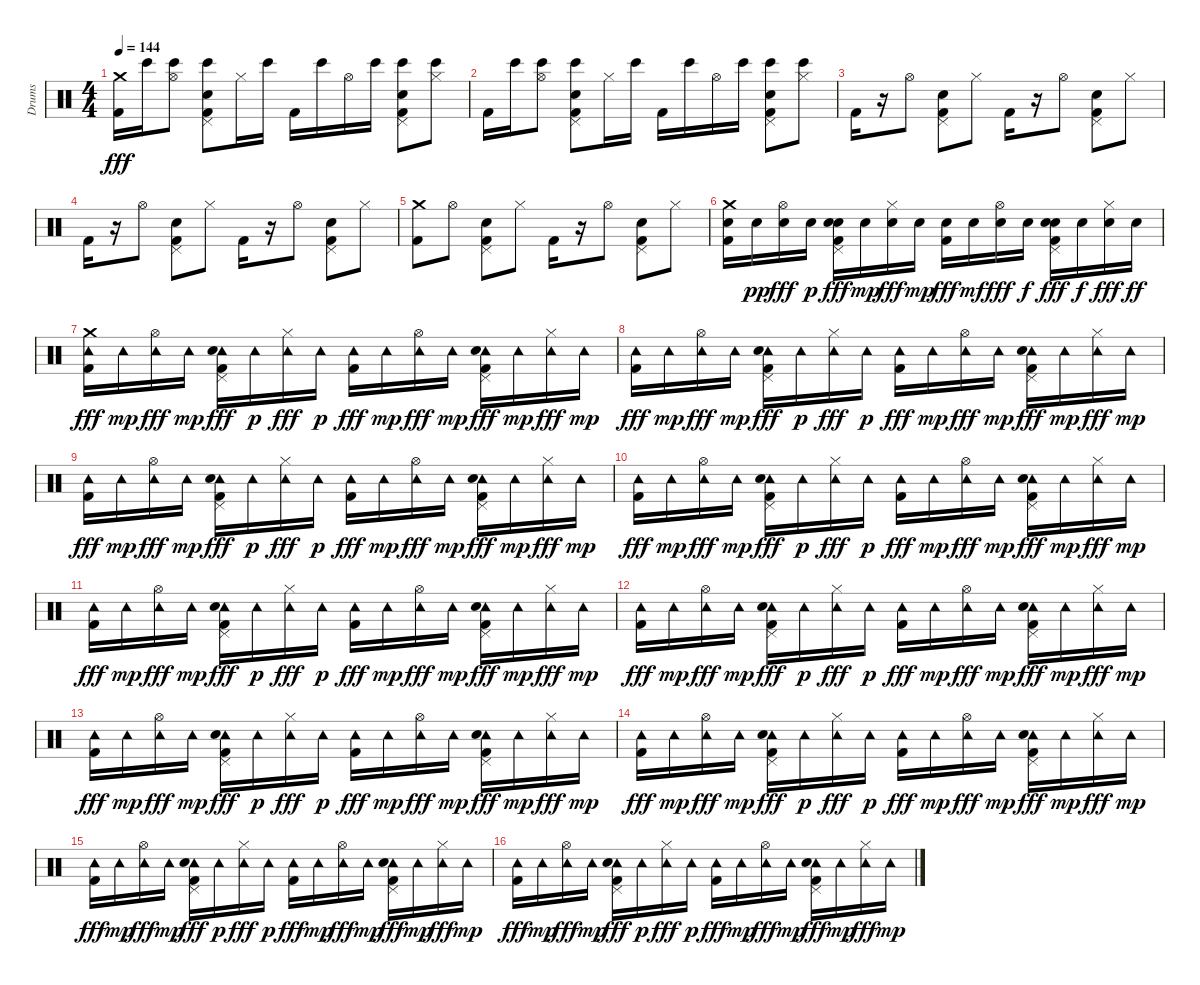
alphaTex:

\track ("Drums" "Drums") {instrument percussion}
\staff {score}
\articulation defaults
\ts (4 4)
\tempo 144
\clef neutral
\ks c
("Crash medium (hit)" "Kick (hit) 2").16{dy fff} "Bongo High (hit)".16 ("Bongo High (hit)" "Hi-Hat (open)").8 ("Bongo High (hit)" "Pedal Hi-Hat (hit)" "Kick (hit) 2" "Hand Clap (hit)").8 "Hi-Hat (closed)".16 "Bongo High (hit)".16 "Kick (hit) 2".16 "Bongo High (hit)".16 "Hi-Hat (open)".16 "Bongo High (hit)".16 ("Bongo High (hit)" "Pedal Hi-Hat (hit)" "Kick (hit) 2" "Hand Clap (hit)").8 ("Bongo High (hit)" "Hi-Hat (closed)").8 |
"Kick (hit) 2".16 "Bongo High (hit)".16 ("Bongo High (hit)" "Hi-Hat (open)").8 ("Bongo High (hit)" "Pedal Hi-Hat (hit)" "Kick (hit) 2" "Hand Clap (hit)").8 "Hi-Hat (closed)".16 "Bongo High (hit)".16 "Kick (hit) 2".16 "Bongo High (hit)".16 "Hi-Hat (open)".16 "Bongo High (hit)".16 ("Bongo High (hit)" "Pedal Hi-Hat (hit)" "Kick (hit) 2" "Hand Clap (hit)").8 ("Bongo High (hit)" "Hi-Hat (closed)").8 |
"Kick (hit) 2".16 r.16 "Hi-Hat (open)".8 ("Pedal Hi-Hat (hit)" "Kick (hit) 2" "Hand Clap (hit)").8 "Hi-Hat (closed)".8 "Kick (hit) 2".16 r.16 "Hi-Hat (open)".8 ("Pedal Hi-Hat (hit)" "Kick (hit) 2" "Hand Clap (hit)").8 "Hi-Hat (closed)".8 |
"Kick (hit) 2".16 r.16 "Hi-Hat (open)".8 ("Pedal Hi-Hat (hit)" "Kick (hit) 2" "Hand Clap (hit)").8 "Hi-Hat (closed)".8 "Kick (hit) 2".16 r.16 "Hi-Hat (open)".8 ("Pedal Hi-Hat (hit)" "Kick (hit) 2" "Hand Clap (hit)").8 "Hi-Hat (closed)".8 |
("Crash medium (hit)" "Kick (hit) 2").8 "Hi-Hat (open)".8 ("Pedal Hi-Hat (hit)" "Kick (hit) 2" "Hand Clap (hit)").8 "Hi-Hat (closed)".8 "Kick (hit) 2".16 r.16 "Hi-Hat (open)".8 ("Pedal Hi-Hat (hit)" "Kick (hit) 2" "Hand Clap (hit)").8 "Hi-Hat (closed)".8 |
("Electric Snare (hit)" "Crash medium (hit)" "Kick (hit) 2").16 "Electric Snare (hit)".16{dy pp} ("Electric Snare (hit)" "Hi-Hat (open)").16{dy fff} "Electric Snare (hit)".16{dy p} ("Electric Snare (hit)" "Pedal Hi-Hat (hit)" "Kick (hit) 2" "Hand Clap (hit)").16{dy fff} "Electric Snare (hit)".16{dy mp} ("Electric Snare (hit)" "Hi-Hat (closed)").16{dy fff} "Electric Snare (hit)".16{dy mp} ("Electric Snare (hit)" "Kick (hit) 2").16{dy fff} "Electric Snare (hit)".16{dy mf} ("Electric Snare (hit)" "Hi-Hat (open)").16{dy fff} "Electric Snare (hit)".16{dy f} ("Electric Snare (hit)" "Pedal Hi-Hat (hit)" "Kick (hit) 2" "Hand Clap (hit)").16{dy fff} "Electric Snare (hit)".16{dy f} ("Electric Snare (hit)" "Hi-Hat (closed)").16{dy fff} "Electric Snare (hit)".16{dy ff} |
("Crash medium (hit)" "Tambourine (hit)" "Kick (hit) 2").16{dy fff} "Tambourine (hit)".16{dy mp} ("Tambourine (hit)" "Hi-Hat (open)").16{dy fff} "Tambourine (hit)".16{dy mp} ("Tambourine (hit)" "Pedal Hi-Hat (hit)" "Kick (hit) 2" "Hand Clap (hit)").16{dy fff} "Tambourine (hit)".16{dy p} ("Tambourine (hit)" "Hi-Hat (closed)").16{dy fff} "Tambourine (hit)".16{dy p} ("Tambourine (hit)" "Kick (hit) 2").16{dy fff} "Tambourine (hit)".16{dy mp} ("Tambourine (hit)" "Hi-Hat (open)").16{dy fff} "Tambourine (hit)".16{dy mp} ("Tambourine (hit)" "Pedal Hi-Hat (hit)" "Kick (hit) 2" "Hand Clap (hit)").16{dy fff} "Tambourine (hit)".16{dy mp} ("Tambourine (hit)" "Hi-Hat (closed)").16{dy fff} "Tambourine (hit)".16{dy mp} |
("Tambourine (hit)" "Kick (hit) 2").16{dy fff} "Tambourine (hit)".16{dy mp} ("Tambourine (hit)" "Hi-Hat (open)").16{dy fff} "Tambourine (hit)".16{dy mp} ("Tambourine (hit)" "Pedal Hi-Hat (hit)" "Kick (hit) 2" "Hand Clap (hit)").16{dy fff} "Tambourine (hit)".16{dy p} ("Tambourine (hit)" "Hi-Hat (closed)").16{dy fff} "Tambourine (hit)".16{dy p} ("Tambourine (hit)" "Kick (hit) 2").16{dy fff} "Tambourine (hit)".16{dy mp} ("Tambourine (hit)" "Hi-Hat (open)").16{dy fff} "Tambourine (hit)".16{dy mp} ("Tambourine (hit)" "Pedal Hi-Hat (hit)" "Kick (hit) 2" "Hand Clap (hit)").16{dy fff} "Tambourine (hit)".16{dy mp} ("Tambourine (hit)" "Hi-Hat (closed)").16{dy fff} "Tambourine (hit)".16{dy mp} |
("Tambourine (hit)" "Kick (hit) 2").16{dy fff} "Tambourine (hit)".16{dy mp} ("Tambourine (hit)" "Hi-Hat (open)").16{dy fff} "Tambourine (hit)".16{dy mp} ("Tambourine (hit)" "Pedal Hi-Hat (hit)" "Kick (hit) 2" "Hand Clap (hit)").16{dy fff} "Tambourine (hit)".16{dy p} ("Tambourine (hit)" "Hi-Hat (closed)").16{dy fff} "Tambourine (hit)".16{dy p} ("Tambourine (hit)" "Kick (hit) 2").16{dy fff} "Tambourine (hit)".16{dy mp} ("Tambourine (hit)" "Hi-Hat (open)").16{dy fff} "Tambourine (hit)".16{dy mp} ("Tambourine (hit)" "Pedal Hi-Hat (hit)" "Kick (hit) 2" "Hand Clap (hit)").16{dy fff} "Tambourine (hit)".16{dy mp} ("Tambourine (hit)" "Hi-Hat (closed)").16{dy fff} "Tambourine (hit)".16{dy mp} |
("Tambourine (hit)" "Kick (hit) 2").16{dy fff} "Tambourine (hit)".16{dy mp} ("Tambourine (hit)" "Hi-Hat (open)").16{dy fff} "Tambourine (hit)".16{dy mp} ("Tambourine (hit)" "Pedal Hi-Hat (hit)" "Kick (hit) 2" "Hand Clap (hit)").16{dy fff} "Tambourine (hit)".16{dy p} ("Tambourine (hit)" "Hi-Hat (closed)").16{dy fff} "Tambourine (hit)".16{dy p} ("Tambourine (hit)" "Kick (hit) 2").16{dy fff} "Tambourine (hit)".16{dy mp} ("Tambourine (hit)" "Hi-Hat (open)").16{dy fff} "Tambourine (hit)".16{dy mp} ("Tambourine (hit)" "Pedal Hi-Hat (hit)" "Kick (hit) 2" "Hand Clap (hit)").16{dy fff} "Tambourine (hit)".16{dy mp} ("Tambourine (hit)" "Hi-Hat (closed)").16{dy fff} "Tambourine (hit)".16{dy mp} |
("Tambourine (hit)" "Kick (hit) 2").16{dy fff} "Tambourine (hit)".16{dy mp} ("Tambourine (hit)" "Hi-Hat (open)").16{dy fff} "Tambourine (hit)".16{dy mp} ("Tambourine (hit)" "Pedal Hi-Hat (hit)" "Kick (hit) 2" "Hand Clap (hit)").16{dy fff} "Tambourine (hit)".16{dy p} ("Tambourine (hit)" "Hi-Hat (closed)").16{dy fff} "Tambourine (hit)".16{dy p} ("Tambourine (hit)" "Kick (hit) 2").16{dy fff} "Tambourine (hit)".16{dy mp} ("Tambourine (hit)" "Hi-Hat (open)").16{dy fff} "Tambourine (hit)".16{dy mp} ("Tambourine (hit)" "Pedal Hi-Hat (hit)" "Kick (hit) 2" "Hand Clap (hit)").16{dy fff} "Tambourine (hit)".16{dy mp} ("Tambourine (hit)" "Hi-Hat (closed)").16{dy fff} "Tambourine (hit)".16{dy mp} |
("Tambourine (hit)" "Kick (hit) 2").16{dy fff} "Tambourine (hit)".16{dy mp} ("Tambourine (hit)" "Hi-Hat (open)").16{dy fff} "Tambourine (hit)".16{dy mp} ("Tambourine (hit)" "Pedal Hi-Hat (hit)" "Kick (hit) 2" "Hand Clap (hit)").16{dy fff} "Tambourine (hit)".16{dy p} ("Tambourine (hit)" "Hi-Hat (closed)").16{dy fff} "Tambourine (hit)".16{dy p} ("Tambourine (hit)" "Kick (hit) 2").16{dy fff} "Tambourine (hit)".16{dy mp} ("Tambourine (hit)" "Hi-Hat (open)").16{dy fff} "Tambourine (hit)".16{dy mp} ("Tambourine (hit)" "Pedal Hi-Hat (hit)" "Kick (hit) 2" "Hand Clap (hit)").16{dy fff} "Tambourine (hit)".16{dy mp} ("Tambourine (hit)" "Hi-Hat (closed)").16{dy fff} "Tambourine (hit)".16{dy mp} |
("Tambourine (hit)" "Kick (hit) 2").16{dy fff} "Tambourine (hit)".16{dy mp} ("Tambourine (hit)" "Hi-Hat (open)").16{dy fff} "Tambourine (hit)".16{dy mp} ("Tambourine (hit)" "Pedal Hi-Hat (hit)" "Kick (hit) 2" "Hand Clap (hit)").16{dy fff} "Tambourine (hit)".16{dy p} ("Tambourine (hit)" "Hi-Hat (closed)").16{dy fff} "Tambourine (hit)".16{dy p} ("Tambourine (hit)" "Kick (hit) 2").16{dy fff} "Tambourine (hit)".16{dy mp} ("Tambourine (hit)" "Hi-Hat (open)").16{dy fff} "Tambourine (hit)".16{dy mp} ("Tambourine (hit)" "Pedal Hi-Hat (hit)" "Kick (hit) 2" "Hand Clap (hit)").16{dy fff} "Tambourine (hit)".16{dy mp} ("Tambourine (hit)" "Hi-Hat (closed)").16{dy fff} "Tambourine (hit)".16{dy mp} |
("Tambourine (hit)" "Kick (hit) 2").16{dy fff} "Tambourine (hit)".16{dy mp} ("Tambourine (hit)" "Hi-Hat (open)").16{dy fff} "Tambourine (hit)".16{dy mp} ("Tambourine (hit)" "Pedal Hi-Hat (hit)" "Kick (hit) 2" "Hand Clap (hit)").16{dy fff} "Tambourine (hit)".16{dy p} ("Tambourine (hit)" "Hi-Hat (closed)").16{dy fff} "Tambourine (hit)".16{dy p} ("Tambourine (hit)" "Kick (hit) 2").16{dy fff} "Tambourine (hit)".16{dy mp} ("Tambourine (hit)" "Hi-Hat (open)").16{dy fff} "Tambourine (hit)".16{dy mp} ("Tambourine (hit)" "Pedal Hi-Hat (hit)" "Kick (hit) 2" "Hand Clap (hit)").16{dy fff} "Tambourine (hit)".16{dy mp} ("Tambourine (hit)" "Hi-Hat (closed)").16{dy fff} "Tambourine (hit)".16{dy mp} |
("Tambourine (hit)" "Kick (hit) 2").16{dy fff} "Tambourine (hit)".16{dy mp} ("Tambourine (hit)" "Hi-Hat (open)").16{dy fff} "Tambourine (hit)".16{dy mp} ("Tambourine (hit)" "Pedal Hi-Hat (hit)" "Kick (hit) 2" "Hand Clap (hit)").16{dy fff} "Tambourine (hit)".16{dy p} ("Tambourine (hit)" "Hi-Hat (closed)").16{dy fff} "Tambourine (hit)".16{dy p} ("Tambourine (hit)" "Kick (hit) 2").16{dy fff} "Tambourine (hit)".16{dy mp} ("Tambourine (hit)" "Hi-Hat (open)").16{dy fff} "Tambourine (hit)".16{dy mp} ("Tambourine (hit)" "Pedal Hi-Hat (hit)" "Kick (hit) 2" "Hand Clap (hit)").16{dy fff} "Tambourine (hit)".16{dy mp} ("Tambourine (hit)" "Hi-Hat (closed)").16{dy fff} "Tambourine (hit)".16{dy mp} |
("Tambourine (hit)" "Kick (hit) 2").16{dy fff} "Tambourine (hit)".16{dy mp} ("Tambourine (hit)" "Hi-Hat (open)").16{dy fff} "Tambourine (hit)".16{dy mp} ("Tambourine (hit)" "Pedal Hi-Hat (hit)" "Kick (hit) 2" "Hand Clap (hit)").16{dy fff} "Tambourine (hit)".16{dy p} ("Tambourine (hit)" "Hi-Hat (closed)").16{dy fff} "Tambourine (hit)".16{dy p} ("Tambourine (hit)" "Kick (hit) 2").16{dy fff} "Tambourine (hit)".16{dy mp} ("Tambourine (hit)" "Hi-Hat (open)").16{dy fff} "Tambourine (hit)".16{dy mp} ("Tambourine (hit)" "Pedal Hi-Hat (hit)" "Kick (hit) 2" "Hand Clap (hit)").16{dy fff} "Tambourine (hit)".16{dy mp} ("Tambourine (hit)" "Hi-Hat (closed)").16{dy fff} "Tambourine (hit)".16{dy mp}
